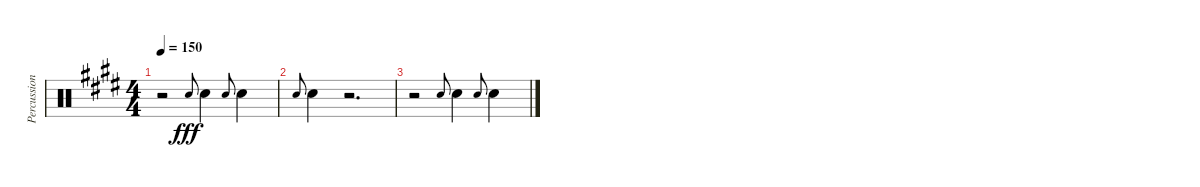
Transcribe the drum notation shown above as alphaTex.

\track ("Percussion" "Percussion") {instrument percussion}
\staff {score}
\articulation defaults
\ts (4 4)
\tempo 150
\clef neutral
\ks e
r.2{dy fff} "Hand Clap (hit)".8{gr onbeat} "Hand Clap (hit)".4 "Hand Clap (hit)".8{gr onbeat} "Hand Clap (hit)".4 |
"Hand Clap (hit)".8{gr onbeat} "Hand Clap (hit)".4 r.2{d} |
r.2 "Hand Clap (hit)".8{gr onbeat} "Hand Clap (hit)".4 "Hand Clap (hit)".8{gr onbeat} "Hand Clap (hit)".4
